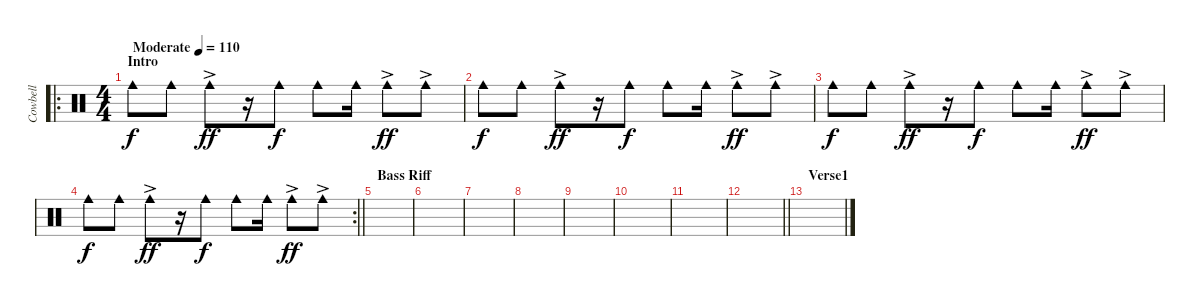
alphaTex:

\track ("Cowbell" "Cowbell") {instrument percussion}
\staff {score}
\articulation defaults
\ro
\ts (4 4)
\section ("" "Intro")
\tempo (110 "Moderate")
\clef neutral
\ks c "Cowbell medium (hit)".8{dy f} "Cowbell medium (hit)".8 "Cowbell medium (hit)"{ac}.8{dy ff}
r.16 "Cowbell medium (hit)".8{dy f} "Cowbell medium (hit)".8 "Cowbell medium (hit)".16 "Cowbell medium (hit)"{ac}.8{dy ff} "Cowbell medium (hit)"{ac}.8 |
"Cowbell medium (hit)".8{dy f} "Cowbell medium (hit)".8 "Cowbell medium (hit)"{ac}.8{dy ff} r.16 "Cowbell medium (hit)".8{dy f} "Cowbell medium (hit)".8 "Cowbell medium (hit)".16 "Cowbell medium (hit)"{ac}.8{dy ff} "Cowbell medium (hit)"{ac}.8 |
"Cowbell medium (hit)".8{dy f} "Cowbell medium (hit)".8 "Cowbell medium (hit)"{ac}.8{dy ff} r.16 "Cowbell medium (hit)".8{dy f} "Cowbell medium (hit)".8 "Cowbell medium (hit)".16 "Cowbell medium (hit)"{ac}.8{dy ff} "Cowbell medium (hit)"{ac}.8 |
\rc 2
\barLineRight lightlight "Cowbell medium (hit)".8{dy f} "Cowbell medium (hit)".8 "Cowbell medium (hit)"{ac}.8{dy ff}
r.16 "Cowbell medium (hit)".8{dy f} "Cowbell medium (hit)".8 "Cowbell medium (hit)".16 "Cowbell medium (hit)"{ac}.8{dy ff} "Cowbell medium (hit)"{ac}.8 |
\section ("" "Bass Riff")
|
|
|
|
|
|
|
\barLineRight lightlight
|
\section ("" "Verse1")
